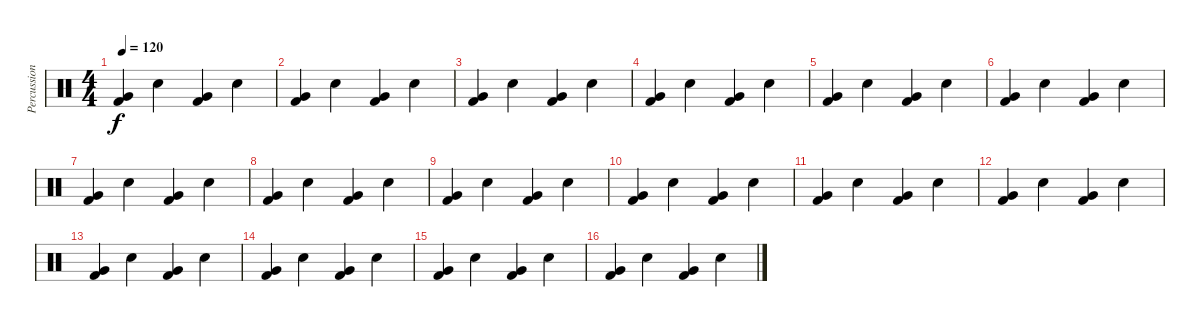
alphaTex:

\track ("Percussions" "Percussion") {instrument percussion}
\staff {score}
\articulation defaults
\ts (4 4)
\tempo 120
\clef neutral
\ks c
("Very Low Tom (hit)" "Kick (hit) 2").4{dy f} "Snare (hit) 2".4 ("Very Low Tom (hit)" "Kick (hit) 2").4 "Snare (hit) 2".4 |
("Very Low Tom (hit)" "Kick (hit) 2").4 "Snare (hit) 2".4 ("Very Low Tom (hit)" "Kick (hit) 2").4 "Snare (hit) 2".4 |
("Very Low Tom (hit)" "Kick (hit) 2").4 "Snare (hit) 2".4 ("Very Low Tom (hit)" "Kick (hit) 2").4 "Snare (hit) 2".4 |
("Very Low Tom (hit)" "Kick (hit) 2").4 "Snare (hit) 2".4 ("Very Low Tom (hit)" "Kick (hit) 2").4 "Snare (hit) 2".4 |
("Very Low Tom (hit)" "Kick (hit) 2").4 "Snare (hit) 2".4 ("Very Low Tom (hit)" "Kick (hit) 2").4 "Snare (hit) 2".4 |
("Very Low Tom (hit)" "Kick (hit) 2").4 "Snare (hit) 2".4 ("Very Low Tom (hit)" "Kick (hit) 2").4 "Snare (hit) 2".4 |
("Very Low Tom (hit)" "Kick (hit) 2").4 "Snare (hit) 2".4 ("Very Low Tom (hit)" "Kick (hit) 2").4 "Snare (hit) 2".4 |
("Very Low Tom (hit)" "Kick (hit) 2").4 "Snare (hit) 2".4 ("Very Low Tom (hit)" "Kick (hit) 2").4 "Snare (hit) 2".4 |
("Very Low Tom (hit)" "Kick (hit) 2").4 "Snare (hit) 2".4 ("Very Low Tom (hit)" "Kick (hit) 2").4 "Snare (hit) 2".4 |
("Very Low Tom (hit)" "Kick (hit) 2").4 "Snare (hit) 2".4 ("Very Low Tom (hit)" "Kick (hit) 2").4 "Snare (hit) 2".4 |
("Very Low Tom (hit)" "Kick (hit) 2").4 "Snare (hit) 2".4 ("Very Low Tom (hit)" "Kick (hit) 2").4 "Snare (hit) 2".4 |
("Very Low Tom (hit)" "Kick (hit) 2").4 "Snare (hit) 2".4 ("Very Low Tom (hit)" "Kick (hit) 2").4 "Snare (hit) 2".4 |
("Very Low Tom (hit)" "Kick (hit) 2").4 "Snare (hit) 2".4 ("Very Low Tom (hit)" "Kick (hit) 2").4 "Snare (hit) 2".4 |
("Very Low Tom (hit)" "Kick (hit) 2").4 "Snare (hit) 2".4 ("Very Low Tom (hit)" "Kick (hit) 2").4 "Snare (hit) 2".4 |
("Very Low Tom (hit)" "Kick (hit) 2").4 "Snare (hit) 2".4 ("Very Low Tom (hit)" "Kick (hit) 2").4 "Snare (hit) 2".4 |
("Very Low Tom (hit)" "Kick (hit) 2").4 "Snare (hit) 2".4 ("Very Low Tom (hit)" "Kick (hit) 2").4 "Snare (hit) 2".4
